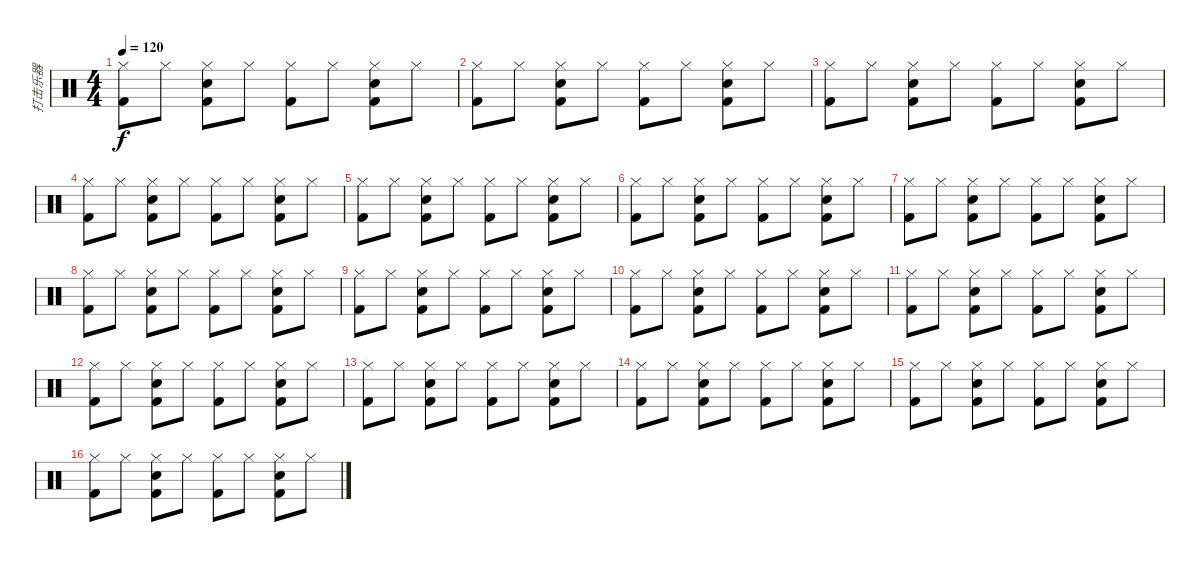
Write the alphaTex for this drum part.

\track ("打击乐器" "打击乐器") {instrument percussion}
\staff {score}
\articulation defaults
\ts (4 4)
\tempo 120
\clef neutral
\ks c
("Hi-Hat (closed)" "Kick (hit) 2").8{dy f} "Hi-Hat (closed)".8 ("Hi-Hat (closed)" "Snare (hit) 2" "Kick (hit) 2").8 "Hi-Hat (closed)".8 ("Hi-Hat (closed)" "Kick (hit) 2").8 "Hi-Hat (closed)".8 ("Hi-Hat (closed)" "Snare (hit) 2" "Kick (hit) 2").8 "Hi-Hat (closed)".8 |
("Hi-Hat (closed)" "Kick (hit) 2").8 "Hi-Hat (closed)".8 ("Hi-Hat (closed)" "Snare (hit) 2" "Kick (hit) 2").8 "Hi-Hat (closed)".8 ("Hi-Hat (closed)" "Kick (hit) 2").8 "Hi-Hat (closed)".8 ("Hi-Hat (closed)" "Snare (hit) 2" "Kick (hit) 2").8 "Hi-Hat (closed)".8 |
("Hi-Hat (closed)" "Kick (hit) 2").8 "Hi-Hat (closed)".8 ("Hi-Hat (closed)" "Snare (hit) 2" "Kick (hit) 2").8 "Hi-Hat (closed)".8 ("Hi-Hat (closed)" "Kick (hit) 2").8 "Hi-Hat (closed)".8 ("Hi-Hat (closed)" "Snare (hit) 2" "Kick (hit) 2").8 "Hi-Hat (closed)".8 |
("Hi-Hat (closed)" "Kick (hit) 2").8 "Hi-Hat (closed)".8 ("Hi-Hat (closed)" "Snare (hit) 2" "Kick (hit) 2").8 "Hi-Hat (closed)".8 ("Hi-Hat (closed)" "Kick (hit) 2").8 "Hi-Hat (closed)".8 ("Hi-Hat (closed)" "Snare (hit) 2" "Kick (hit) 2").8 "Hi-Hat (closed)".8 |
("Hi-Hat (closed)" "Kick (hit) 2").8 "Hi-Hat (closed)".8 ("Hi-Hat (closed)" "Snare (hit) 2" "Kick (hit) 2").8 "Hi-Hat (closed)".8 ("Hi-Hat (closed)" "Kick (hit) 2").8 "Hi-Hat (closed)".8 ("Hi-Hat (closed)" "Snare (hit) 2" "Kick (hit) 2").8 "Hi-Hat (closed)".8 |
("Hi-Hat (closed)" "Kick (hit) 2").8 "Hi-Hat (closed)".8 ("Hi-Hat (closed)" "Snare (hit) 2" "Kick (hit) 2").8 "Hi-Hat (closed)".8 ("Hi-Hat (closed)" "Kick (hit) 2").8 "Hi-Hat (closed)".8 ("Hi-Hat (closed)" "Snare (hit) 2" "Kick (hit) 2").8 "Hi-Hat (closed)".8 |
("Hi-Hat (closed)" "Kick (hit) 2").8 "Hi-Hat (closed)".8 ("Hi-Hat (closed)" "Snare (hit) 2" "Kick (hit) 2").8 "Hi-Hat (closed)".8 ("Hi-Hat (closed)" "Kick (hit) 2").8 "Hi-Hat (closed)".8 ("Hi-Hat (closed)" "Snare (hit) 2" "Kick (hit) 2").8 "Hi-Hat (closed)".8 |
("Hi-Hat (closed)" "Kick (hit) 2").8 "Hi-Hat (closed)".8 ("Hi-Hat (closed)" "Snare (hit) 2" "Kick (hit) 2").8 "Hi-Hat (closed)".8 ("Hi-Hat (closed)" "Kick (hit) 2").8 "Hi-Hat (closed)".8 ("Hi-Hat (closed)" "Snare (hit) 2" "Kick (hit) 2").8 "Hi-Hat (closed)".8 |
("Hi-Hat (closed)" "Kick (hit) 2").8 "Hi-Hat (closed)".8 ("Hi-Hat (closed)" "Snare (hit) 2" "Kick (hit) 2").8 "Hi-Hat (closed)".8 ("Hi-Hat (closed)" "Kick (hit) 2").8 "Hi-Hat (closed)".8 ("Hi-Hat (closed)" "Snare (hit) 2" "Kick (hit) 2").8 "Hi-Hat (closed)".8 |
("Hi-Hat (closed)" "Kick (hit) 2").8 "Hi-Hat (closed)".8 ("Hi-Hat (closed)" "Snare (hit) 2" "Kick (hit) 2").8 "Hi-Hat (closed)".8 ("Hi-Hat (closed)" "Kick (hit) 2").8 "Hi-Hat (closed)".8 ("Hi-Hat (closed)" "Snare (hit) 2" "Kick (hit) 2").8 "Hi-Hat (closed)".8 |
("Hi-Hat (closed)" "Kick (hit) 2").8 "Hi-Hat (closed)".8 ("Hi-Hat (closed)" "Snare (hit) 2" "Kick (hit) 2").8 "Hi-Hat (closed)".8 ("Hi-Hat (closed)" "Kick (hit) 2").8 "Hi-Hat (closed)".8 ("Hi-Hat (closed)" "Snare (hit) 2" "Kick (hit) 2").8 "Hi-Hat (closed)".8 |
("Hi-Hat (closed)" "Kick (hit) 2").8 "Hi-Hat (closed)".8 ("Hi-Hat (closed)" "Snare (hit) 2" "Kick (hit) 2").8 "Hi-Hat (closed)".8 ("Hi-Hat (closed)" "Kick (hit) 2").8 "Hi-Hat (closed)".8 ("Hi-Hat (closed)" "Snare (hit) 2" "Kick (hit) 2").8 "Hi-Hat (closed)".8 |
("Hi-Hat (closed)" "Kick (hit) 2").8 "Hi-Hat (closed)".8 ("Hi-Hat (closed)" "Snare (hit) 2" "Kick (hit) 2").8 "Hi-Hat (closed)".8 ("Hi-Hat (closed)" "Kick (hit) 2").8 "Hi-Hat (closed)".8 ("Hi-Hat (closed)" "Snare (hit) 2" "Kick (hit) 2").8 "Hi-Hat (closed)".8 |
("Hi-Hat (closed)" "Kick (hit) 2").8 "Hi-Hat (closed)".8 ("Hi-Hat (closed)" "Snare (hit) 2" "Kick (hit) 2").8 "Hi-Hat (closed)".8 ("Hi-Hat (closed)" "Kick (hit) 2").8 "Hi-Hat (closed)".8 ("Hi-Hat (closed)" "Snare (hit) 2" "Kick (hit) 2").8 "Hi-Hat (closed)".8 |
("Hi-Hat (closed)" "Kick (hit) 2").8 "Hi-Hat (closed)".8 ("Hi-Hat (closed)" "Snare (hit) 2" "Kick (hit) 2").8 "Hi-Hat (closed)".8 ("Hi-Hat (closed)" "Kick (hit) 2").8 "Hi-Hat (closed)".8 ("Hi-Hat (closed)" "Snare (hit) 2" "Kick (hit) 2").8 "Hi-Hat (closed)".8 |
("Hi-Hat (closed)" "Kick (hit) 2").8 "Hi-Hat (closed)".8 ("Hi-Hat (closed)" "Snare (hit) 2" "Kick (hit) 2").8 "Hi-Hat (closed)".8 ("Hi-Hat (closed)" "Kick (hit) 2").8 "Hi-Hat (closed)".8 ("Hi-Hat (closed)" "Snare (hit) 2" "Kick (hit) 2").8 "Hi-Hat (closed)".8
